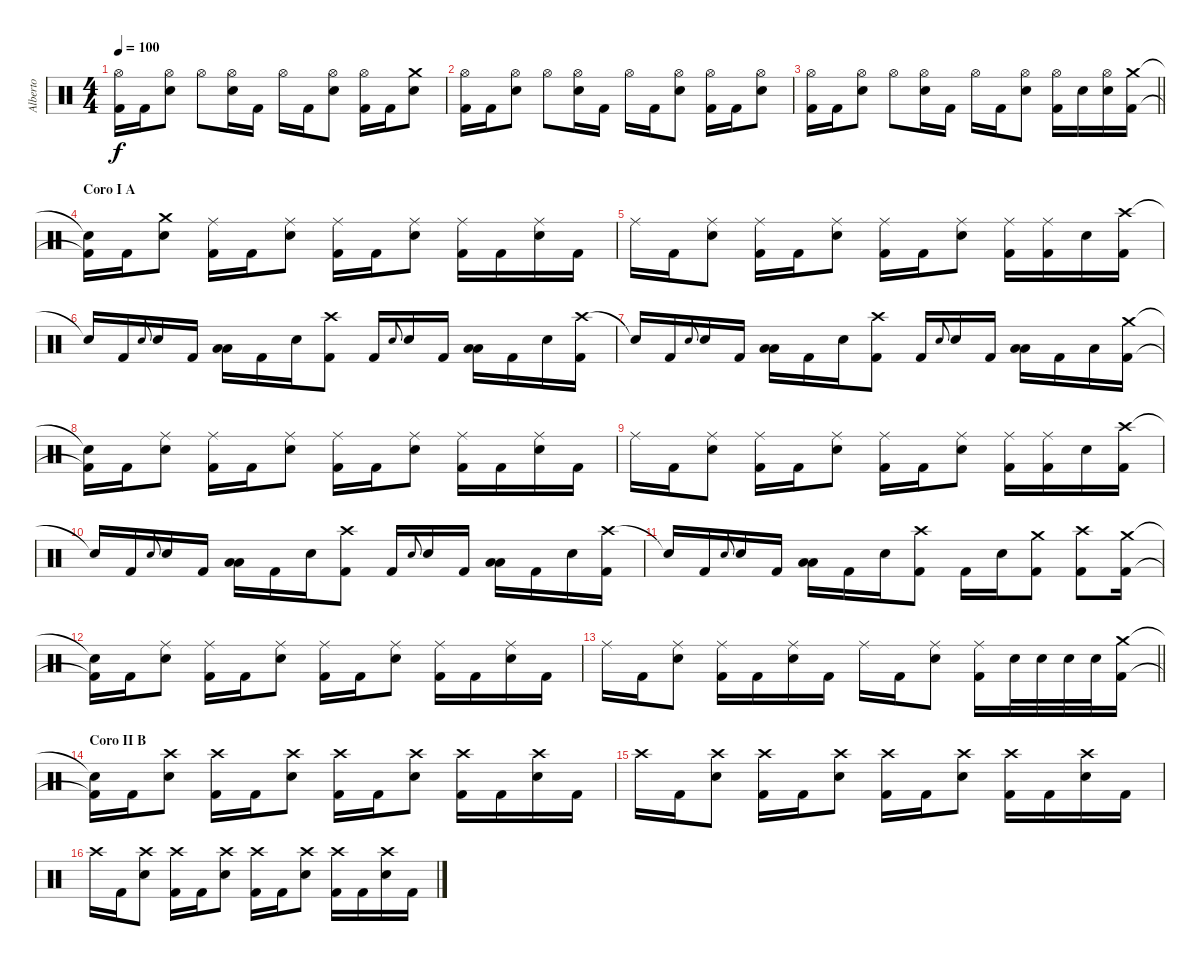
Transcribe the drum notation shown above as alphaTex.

\track ("Alberto" "Alberto") {instrument percussion}
\staff
\articulation defaults
\ts (4 4)
\tempo 100
\clef neutral
\ks c
("Hi-Hat (open)" "Kick (hit) 2").16{dy f} "Kick (hit) 2".16 ("Hi-Hat (open)" "Electric Snare (hit)").8 "Hi-Hat (open)".8 ("Hi-Hat (open)" "Electric Snare (hit)").16 "Kick (hit) 2".16 "Hi-Hat (open)".16 "Kick (hit) 2".16 ("Hi-Hat (open)" "Electric Snare (hit)").8 ("Hi-Hat (open)" "Kick (hit) 2").16 "Kick (hit) 2".16 ("Crash medium (hit)" "Electric Snare (hit)").8 |
("Hi-Hat (open)" "Kick (hit) 2").16 "Kick (hit) 2".16 ("Hi-Hat (open)" "Electric Snare (hit)").8 "Hi-Hat (open)".8 ("Hi-Hat (open)" "Electric Snare (hit)").16 "Kick (hit) 2".16 "Hi-Hat (open)".16 "Kick (hit) 2".16 ("Hi-Hat (open)" "Electric Snare (hit)").8 ("Hi-Hat (open)" "Kick (hit) 2").16 "Kick (hit) 2".16 ("Hi-Hat (open)" "Electric Snare (hit)").8 |
\barLineRight lightlight
("Hi-Hat (open)" "Kick (hit) 2").16 "Kick (hit) 2".16 ("Hi-Hat (open)" "Electric Snare (hit)").8 "Hi-Hat (open)".8 ("Hi-Hat (open)" "Electric Snare (hit)").16 "Kick (hit) 2".16 "Hi-Hat (open)".16 "Kick (hit) 2".16 ("Hi-Hat (open)" "Electric Snare (hit)").8 ("Hi-Hat (open)" "Kick (hit) 2").16 "Electric Snare (hit)".16 ("Hi-Hat (open)" "Electric Snare (hit)").16 ("Crash medium (hit)" "Kick (hit) 2").16 |
\section ("" "Coro I A")
("Snare (hit)"{t} "Kick (hit) 2"{t}).16 "Kick (hit) 2".16 ("Crash medium (hit)" "Electric Snare (hit)").8 ("Ride (middle)" "Kick (hit) 2").16 "Kick (hit) 2".16 ("Ride (middle)" "Electric Snare (hit)").8 ("Ride (middle)" "Kick (hit) 2").16 "Kick (hit) 2".16 ("Ride (middle)" "Electric Snare (hit)").8 ("Ride (middle)" "Kick (hit) 2").16 "Kick (hit) 2".16 ("Ride (middle)" "Electric Snare (hit)").16 "Kick (hit) 2".16 |
"Ride (middle)".16 "Kick (hit) 2".16 ("Ride (middle)" "Electric Snare (hit)").8 ("Ride (middle)" "Kick (hit) 2").16 "Kick (hit) 2".16 ("Ride (middle)" "Electric Snare (hit)").8 ("Ride (middle)" "Kick (hit) 2").16 "Kick (hit) 2".16 ("Ride (middle)" "Electric Snare (hit)").8 ("Ride (middle)" "Kick (hit) 2").16 ("Ride (middle)" "Kick (hit) 2").16 "Electric Snare (hit)".16 ("Crash high (hit)" "Kick (hit) 2").16 |
"Snare (hit)"{t}.16 "Kick (hit) 2".16 "Electric Snare (hit)".8{gr onbeat} "Electric Snare (hit)".16 "Kick (hit) 2".16 ("Low Tom (hit)" "Low Floor Tom (hit)").16 "Kick (hit) 2".16 "Electric Snare (hit)".16 ("Crash high (hit)" "Kick (hit) 2").8 "Kick (hit) 2".16 "Electric Snare (hit)".8{gr onbeat} "Electric Snare (hit)".16 "Kick (hit) 2".16 ("Low Tom (hit)" "Low Floor Tom (hit)").16 "Kick (hit) 2".16 "Electric Snare (hit)".16 ("Crash high (hit)" "Kick (hit) 2").16 |
"Snare (hit)"{t}.16 "Kick (hit) 2".16 "Electric Snare (hit)".8{gr onbeat} "Electric Snare (hit)".16 "Kick (hit) 2".16 ("Low Tom (hit)" "Low Floor Tom (hit)").16 "Kick (hit) 2".16 "Electric Snare (hit)".16 ("Crash high (hit)" "Kick (hit) 2").8 "Kick (hit) 2".16 "Electric Snare (hit)".8{gr onbeat} "Electric Snare (hit)".16 "Kick (hit) 2".16 ("Low Tom (hit)" "Low Floor Tom (hit)").16 "Kick (hit) 2".16 "Low Tom (hit)".16 ("Crash medium (hit)" "Kick (hit) 2").16 |
("Snare (hit)"{t} "Kick (hit) 2"{t}).16 "Kick (hit) 2".16 ("Ride (middle)" "Electric Snare (hit)").8 ("Ride (middle)" "Kick (hit) 2").16 "Kick (hit) 2".16 ("Ride (middle)" "Electric Snare (hit)").8 ("Ride (middle)" "Kick (hit) 2").16 "Kick (hit) 2".16 ("Ride (middle)" "Electric Snare (hit)").8 ("Ride (middle)" "Kick (hit) 2").16 "Kick (hit) 2".16 ("Ride (middle)" "Electric Snare (hit)").16 "Kick (hit) 2".16 |
"Ride (middle)".16 "Kick (hit) 2".16 ("Ride (middle)" "Electric Snare (hit)").8 ("Ride (middle)" "Kick (hit) 2").16 "Kick (hit) 2".16 ("Ride (middle)" "Electric Snare (hit)").8 ("Ride (middle)" "Kick (hit) 2").16 "Kick (hit) 2".16 ("Ride (middle)" "Electric Snare (hit)").8 ("Ride (middle)" "Kick (hit) 2").16 ("Ride (middle)" "Kick (hit) 2").16 "Electric Snare (hit)".16 ("Crash high (hit)" "Kick (hit) 2").16 |
"Snare (hit)"{t}.16 "Kick (hit) 2".16 "Electric Snare (hit)".8{gr onbeat} "Electric Snare (hit)".16 "Kick (hit) 2".16 ("Low Tom (hit)" "Low Floor Tom (hit)").16 "Kick (hit) 2".16 "Electric Snare (hit)".16 ("Crash high (hit)" "Kick (hit) 2").8 "Kick (hit) 2".16 "Electric Snare (hit)".8{gr onbeat} "Electric Snare (hit)".16 "Kick (hit) 2".16 ("Low Tom (hit)" "Low Floor Tom (hit)").16 "Kick (hit) 2".16 "Electric Snare (hit)".16 ("Crash high (hit)" "Kick (hit) 2").16 |
"Snare (hit)"{t}.16 "Kick (hit) 2".16 "Electric Snare (hit)".8{gr onbeat} "Electric Snare (hit)".16 "Kick (hit) 2".16 ("Low Tom (hit)" "Low Floor Tom (hit)").16 "Kick (hit) 2".16 "Electric Snare (hit)".16 ("Crash high (hit)" "Kick (hit) 2").8 "Kick (hit) 2".16 "Electric Snare (hit)".16 ("Crash medium (hit)" "Kick (hit) 2").8 ("Crash high (hit)" "Kick (hit) 2").8 ("Crash medium (hit)" "Kick (hit) 2").16 |
("Snare (hit)"{t} "Kick (hit) 2"{t}).16 "Kick (hit) 2".16 ("Ride (middle)" "Electric Snare (hit)").8 ("Ride (middle)" "Kick (hit) 2").16 "Kick (hit) 2".16 ("Ride (middle)" "Electric Snare (hit)").8 ("Ride (middle)" "Kick (hit) 2").16 "Kick (hit) 2".16 ("Ride (middle)" "Electric Snare (hit)").8 ("Ride (middle)" "Kick (hit) 2").16 "Kick (hit) 2".16 ("Ride (middle)" "Electric Snare (hit)").16 "Kick (hit) 2".16 |
\barLineRight lightlight "Ride (middle)".16 "Kick (hit) 2".16
("Ride (middle)" "Electric Snare (hit)").8 ("Ride (middle)" "Kick (hit) 2").16 "Kick (hit) 2".16 ("Ride (middle)" "Electric Snare (hit)").16 "Kick (hit) 2".16 "Ride (middle)".16 "Kick (hit) 2".16 ("Ride (middle)" "Electric Snare (hit)").8 ("Ride (middle)" "Kick (hit) 2").16 "Electric Snare (hit)".32 "Electric Snare (hit)".32 "Electric Snare (hit)".32 "Electric Snare (hit)".32 ("Crash medium (hit)" "Kick (hit) 2").16 |
\section ("" "Coro II B")
("Snare (hit)"{t} "Kick (hit) 2"{t}).16 "Kick (hit) 2".16 ("Crash high (hit)" "Electric Snare (hit)").8 ("Crash high (hit)" "Kick (hit) 2").16 "Kick (hit) 2".16 ("Crash high (hit)" "Electric Snare (hit)").8 ("Crash high (hit)" "Kick (hit) 2").16 "Kick (hit) 2".16 ("Crash high (hit)" "Electric Snare (hit)").8 ("Crash high (hit)" "Kick (hit) 2").16 "Kick (hit) 2".16 ("Crash high (hit)" "Electric Snare (hit)").16 "Kick (hit) 2".16 |
"Crash high (hit)".16 "Kick (hit) 2".16 ("Crash high (hit)" "Electric Snare (hit)").8 ("Crash high (hit)" "Kick (hit) 2").16 "Kick (hit) 2".16 ("Crash high (hit)" "Electric Snare (hit)").8 ("Crash high (hit)" "Kick (hit) 2").16 "Kick (hit) 2".16 ("Crash high (hit)" "Electric Snare (hit)").8 ("Crash high (hit)" "Kick (hit) 2").16 "Kick (hit) 2".16 ("Crash high (hit)" "Electric Snare (hit)").16 "Kick (hit) 2".16 |
"Crash high (hit)".16 "Kick (hit) 2".16 ("Crash high (hit)" "Electric Snare (hit)").8 ("Crash high (hit)" "Kick (hit) 2").16 "Kick (hit) 2".16 ("Crash high (hit)" "Electric Snare (hit)").8 ("Crash high (hit)" "Kick (hit) 2").16 "Kick (hit) 2".16 ("Crash high (hit)" "Electric Snare (hit)").8 ("Crash high (hit)" "Kick (hit) 2").16 "Kick (hit) 2".16 ("Crash high (hit)" "Electric Snare (hit)").16 "Kick (hit) 2".16
